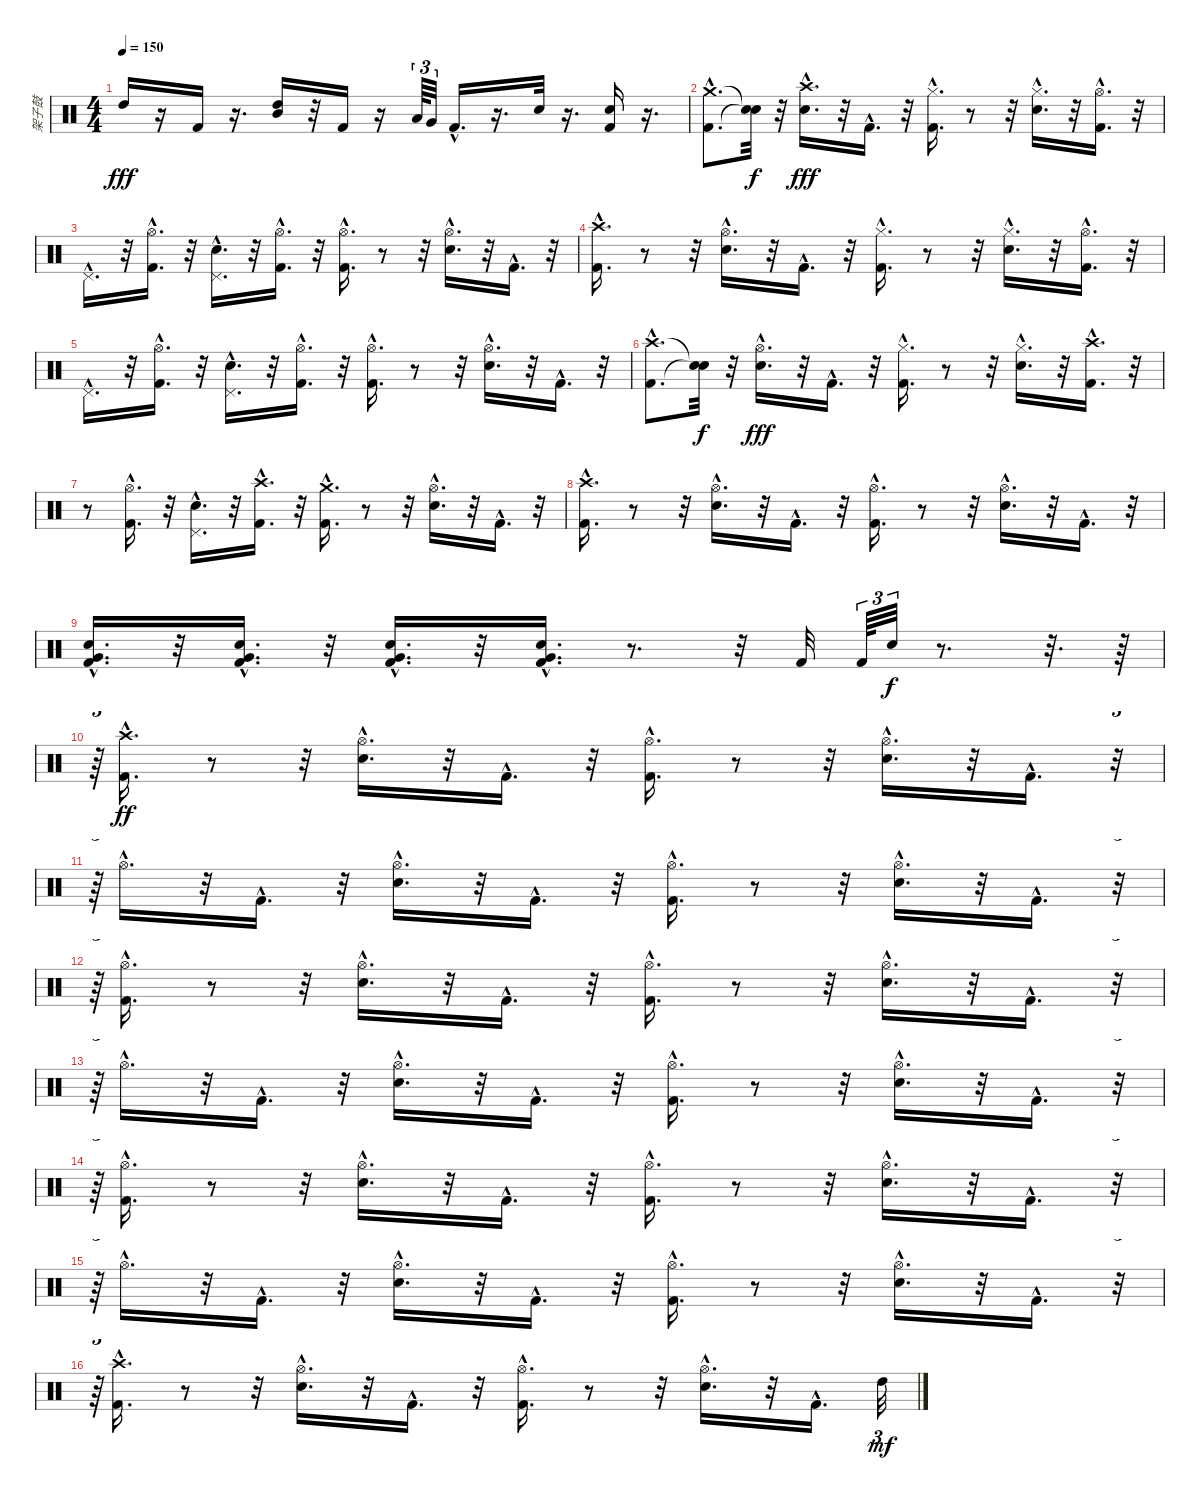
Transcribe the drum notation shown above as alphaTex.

\track ("架子鼓" "架子鼓") {instrument percussion}
\staff {score}
\articulation defaults
\ts (4 4)
\tempo 150
\clef neutral
\ks c "High Tom (hit)".16{dy fff}
r.16 "Kick (hit) 2".16 r.16{d} ("High Tom (hit)" "Mid Tom (hit)").16 r.32 "Kick (hit) 2".16 r.16 "Low Tom (hit)".64{tu (3 2)} "Very Low Tom (hit)".32{tu (3 2)} "Kick (hit) 2"{hac}.16{d} r.16{d} "Snare (hit) 2".32 r.16{d} ("Snare (hit) 2" "Kick (hit) 2").16 r.16{d} |
("Crash medium (hit)"{hac} "Kick (hit) 2"{hac}).8{d} ("Snare (hit)"{t} "Snare (hit)"{t}).32{dy f} r.32 ("Electric Snare (hit)"{hac} "Crash high (hit)"{hac}).16{d dy fff} r.32 "Kick (hit) 2"{hac}.16{d} r.32 ("Kick (hit) 2"{hac} "Hi-Hat (closed)"{hac}).16{d} r.8 r.32 ("Electric Snare (hit)"{hac} "Hi-Hat (closed)"{hac}).16{d} r.32 ("Kick (hit) 2"{hac} "Hi-Hat (open)"{hac}).16{d} r.32 |
"Pedal Hi-Hat (hit)"{hac}.16{d} r.32 ("Hi-Hat (open)"{hac} "Kick (hit) 2"{hac}).16{d} r.32 ("Electric Snare (hit)"{hac} "Pedal Hi-Hat (hit)"{hac}).16{d} r.32 ("Kick (hit) 2"{hac} "Hi-Hat (open)"{hac}).16{d} r.32 ("Hi-Hat (open)"{hac} "Kick (hit) 2"{hac}).16{d} r.8 r.32 ("Hi-Hat (open)"{hac} "Electric Snare (hit)"{hac}).16{d} r.32 "Kick (hit) 2"{hac}.16{d} r.32 |
("Crash high (hit)"{hac} "Kick (hit) 2"{hac}).16{d} r.8 r.32 ("Electric Snare (hit)"{hac} "Hi-Hat (open)"{hac}).16{d} r.32 "Kick (hit) 2"{hac}.16{d} r.32 ("Kick (hit) 2"{hac} "Hi-Hat (closed)"{hac}).16{d} r.8 r.32 ("Hi-Hat (closed)"{hac} "Electric Snare (hit)"{hac}).16{d} r.32 ("Kick (hit) 2"{hac} "Hi-Hat (open)"{hac}).16{d} r.32 |
"Pedal Hi-Hat (hit)"{hac}.16{d} r.32 ("Kick (hit) 2"{hac} "Hi-Hat (open)"{hac}).16{d} r.32 ("Electric Snare (hit)"{hac} "Pedal Hi-Hat (hit)"{hac}).16{d} r.32 ("Kick (hit) 2"{hac} "Hi-Hat (open)"{hac}).16{d} r.32 ("Kick (hit) 2"{hac} "Hi-Hat (open)"{hac}).16{d} r.8 r.32 ("Electric Snare (hit)"{hac} "Hi-Hat (open)"{hac}).16{d} r.32 "Kick (hit) 2"{hac}.16{d} r.32 |
("Kick (hit) 2"{hac} "Crash high (hit)"{hac}).8{d} ("Snare (hit)"{t} "Snare (hit)"{t}).32{dy f} r.32 ("Electric Snare (hit)"{hac} "Hi-Hat (open)"{hac}).16{d dy fff} r.32 "Kick (hit) 2"{hac}.16{d} r.32 ("Kick (hit) 2"{hac} "Hi-Hat (closed)"{hac}).16{d} r.8 r.32 ("Hi-Hat (closed)"{hac} "Electric Snare (hit)"{hac}).16{d} r.32 ("Kick (hit) 2"{hac} "Crash high (hit)"{hac}).16{d} r.32 |
r.8 ("Kick (hit) 2"{hac} "Hi-Hat (open)"{hac}).16{d} r.32 ("Electric Snare (hit)"{hac} "Pedal Hi-Hat (hit)"{hac}).16{d} r.32 ("Crash high (hit)"{hac} "Kick (hit) 2"{hac}).16{d} r.32 ("Crash medium (hit)"{hac} "Kick (hit) 2"{hac}).16{d} r.8 r.32 ("Electric Snare (hit)"{hac} "Hi-Hat (open)"{hac}).16{d} r.32 "Kick (hit) 2"{hac}.16{d} r.32 |
("Kick (hit) 2"{hac} "Crash high (hit)"{hac}).16{d} r.8 r.32 ("Snare (hit) 2"{hac} "Hi-Hat (open)"{hac}).16{d} r.32 "Kick (hit) 2"{hac}.16{d} r.32 ("Kick (hit) 2"{hac} "Hi-Hat (open)"{hac}).16{d} r.8 r.32 ("Snare (hit) 2"{hac} "Hi-Hat (open)"{hac}).16{d} r.32 "Kick (hit) 2"{hac}.16{d} r.32 |
("Snare (hit) 2"{hac} "Very Low Tom (hit)"{hac} "Kick (hit) 2"{hac}).16{d} r.32 ("Very Low Tom (hit)"{hac} "Kick (hit) 2"{hac} "Snare (hit) 2"{hac}).16{d} r.32 ("Very Low Tom (hit)"{hac} "Snare (hit) 2"{hac} "Kick (hit) 2"{hac}).16{d} r.32 ("Very Low Tom (hit)"{hac} "Snare (hit) 2"{hac} "Kick (hit) 2"{hac}).16{d} r.8{d} r.32 "Kick (hit) 2".32 "Kick (hit) 2".64{tu (3 2)} "Electric Snare (hit)".32{tu (3 2) dy f} r.8{d} r.32{d} r.64 |
r.64{tu (3 2)} ("Kick (hit) 2"{hac} "Crash high (hit)"{hac}).16{d dy ff} r.8 r.32 ("Snare (hit) 2"{hac} "Hi-Hat (open)"{hac}).16{d} r.32 "Kick (hit) 2"{hac}.16{d} r.32 ("Kick (hit) 2"{hac} "Hi-Hat (open)"{hac}).16{d} r.8 r.32 ("Hi-Hat (open)"{hac} "Snare (hit) 2"{hac}).16{d} r.32 "Kick (hit) 2"{hac}.16{d} r.32{tu (3 2)} |
r.64{tu (3 2)} "Hi-Hat (open)"{hac}.16{d} r.32 "Kick (hit) 2"{hac}.16{d} r.32 ("Hi-Hat (open)"{hac} "Snare (hit) 2"{hac}).16{d} r.32 "Kick (hit) 2"{hac}.16{d} r.32 ("Hi-Hat (open)"{hac} "Kick (hit) 2"{hac}).16{d} r.8 r.32 ("Snare (hit) 2"{hac} "Hi-Hat (open)"{hac}).16{d} r.32 "Kick (hit) 2"{hac}.16{d} r.32{tu (3 2)} |
r.64{tu (3 2)} ("Hi-Hat (open)"{hac} "Kick (hit) 2"{hac}).16{d} r.8 r.32 ("Snare (hit) 2"{hac} "Hi-Hat (open)"{hac}).16{d} r.32 "Kick (hit) 2"{hac}.16{d} r.32 ("Kick (hit) 2"{hac} "Hi-Hat (open)"{hac}).16{d} r.8 r.32 ("Snare (hit) 2"{hac} "Hi-Hat (open)"{hac}).16{d} r.32 "Kick (hit) 2"{hac}.16{d} r.32{tu (3 2)} |
r.64{tu (3 2)} "Hi-Hat (open)"{hac}.16{d} r.32 "Kick (hit) 2"{hac}.16{d} r.32 ("Snare (hit) 2"{hac} "Hi-Hat (open)"{hac}).16{d} r.32 "Kick (hit) 2"{hac}.16{d} r.32 ("Kick (hit) 2"{hac} "Hi-Hat (open)"{hac}).16{d} r.8 r.32 ("Snare (hit) 2"{hac} "Hi-Hat (open)"{hac}).16{d} r.32 "Kick (hit) 2"{hac}.16{d} r.32{tu (3 2)} |
r.64{tu (3 2)} ("Hi-Hat (open)"{hac} "Kick (hit) 2"{hac}).16{d} r.8 r.32 ("Snare (hit) 2"{hac} "Hi-Hat (open)"{hac}).16{d} r.32 "Kick (hit) 2"{hac}.16{d} r.32 ("Kick (hit) 2"{hac} "Hi-Hat (open)"{hac}).16{d} r.8 r.32 ("Snare (hit) 2"{hac} "Hi-Hat (open)"{hac}).16{d} r.32 "Kick (hit) 2"{hac}.16{d} r.32{tu (3 2)} |
r.64{tu (3 2)} "Hi-Hat (open)"{hac}.16{d} r.32 "Kick (hit) 2"{hac}.16{d} r.32 ("Snare (hit) 2"{hac} "Hi-Hat (open)"{hac}).16{d} r.32 "Kick (hit) 2"{hac}.16{d} r.32 ("Kick (hit) 2"{hac} "Hi-Hat (open)"{hac}).16{d} r.8 r.32 ("Snare (hit) 2"{hac} "Hi-Hat (open)"{hac}).16{d} r.32 "Kick (hit) 2"{hac}.16{d} r.32{tu (3 2)} |
r.64{tu (3 2)} ("Kick (hit) 2"{hac} "Crash high (hit)"{hac}).16{d} r.8 r.32 ("Snare (hit) 2"{hac} "Hi-Hat (open)"{hac}).16{d} r.32 "Kick (hit) 2"{hac}.16{d} r.32 ("Kick (hit) 2"{hac} "Hi-Hat (open)"{hac}).16{d} r.8 r.32 ("Hi-Hat (open)"{hac} "Snare (hit) 2"{hac}).16{d} r.32 "Kick (hit) 2"{hac}.16{d} "High Tom (hit)".32{tu (3 2) dy mf}
